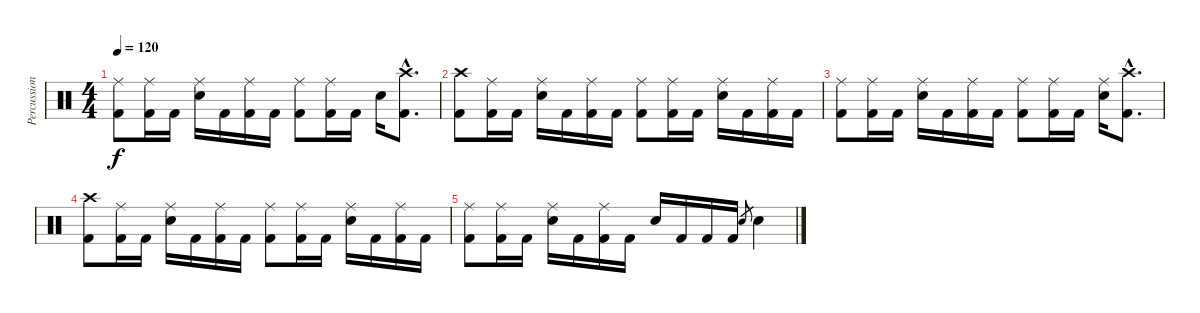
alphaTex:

\track ("Percussion" "Percussion") {instrument percussion}
\staff {score}
\articulation defaults
\ts (4 4)
\tempo 120
\clef neutral
\ks c
("Ride (middle)" "Kick (hit) 2").8{dy f} ("Ride (middle)" "Kick (hit) 2").16 "Kick (hit) 2".16 ("Ride (middle)" "Electric Snare (hit)").16 "Kick (hit) 2".16 ("Ride (middle)" "Kick (hit) 2").16 "Kick (hit) 2".16 ("Ride (middle)" "Kick (hit) 2").8 ("Ride (middle)" "Kick (hit) 2").16 "Kick (hit) 2".16 "Electric Snare (hit)".16 ("Crash high (hit)"{hac} "Kick (hit) 2"{hac}).8{d} |
("Crash high (hit)" "Kick (hit) 2").8 ("Ride (middle)" "Kick (hit) 2").16 "Kick (hit) 2".16 ("Ride (middle)" "Electric Snare (hit)").16 "Kick (hit) 2".16 ("Ride (middle)" "Kick (hit) 2").16 "Kick (hit) 2".16 ("Ride (middle)" "Kick (hit) 2").8 ("Ride (middle)" "Kick (hit) 2").16 "Kick (hit) 2".16 ("Ride (middle)" "Electric Snare (hit)").16 "Kick (hit) 2".16 ("Ride (middle)" "Kick (hit) 2").16 "Kick (hit) 2".16 |
("Ride (middle)" "Kick (hit) 2").8 ("Ride (middle)" "Kick (hit) 2").16 "Kick (hit) 2".16 ("Ride (middle)" "Electric Snare (hit)").16 "Kick (hit) 2".16 ("Ride (middle)" "Kick (hit) 2").16 "Kick (hit) 2".16 ("Ride (middle)" "Kick (hit) 2").8 ("Ride (middle)" "Kick (hit) 2").16 "Kick (hit) 2".16 ("Ride (middle)" "Electric Snare (hit)").16 ("Crash high (hit)"{hac} "Kick (hit) 2"{hac}).8{d} |
("Crash high (hit)" "Kick (hit) 2").8 ("Ride (middle)" "Kick (hit) 2").16 "Kick (hit) 2".16 ("Ride (middle)" "Electric Snare (hit)").16 "Kick (hit) 2".16 ("Ride (middle)" "Kick (hit) 2").16 "Kick (hit) 2".16 ("Ride (middle)" "Kick (hit) 2").8 ("Ride (middle)" "Kick (hit) 2").16 "Kick (hit) 2".16 ("Ride (middle)" "Electric Snare (hit)").16 "Kick (hit) 2".16 ("Ride (middle)" "Kick (hit) 2").16 "Kick (hit) 2".16 |
("Ride (middle)" "Kick (hit) 2").8 ("Ride (middle)" "Kick (hit) 2").16 "Kick (hit) 2".16 ("Ride (middle)" "Electric Snare (hit)").16 "Kick (hit) 2".16 ("Ride (middle)" "Kick (hit) 2").16 "Kick (hit) 2".16 "Electric Snare (hit)".16 "Kick (hit) 2".16 "Kick (hit) 2".16 "Kick (hit) 2".16 "Electric Snare (hit)".8{gr} "Electric Snare (hit)".4
